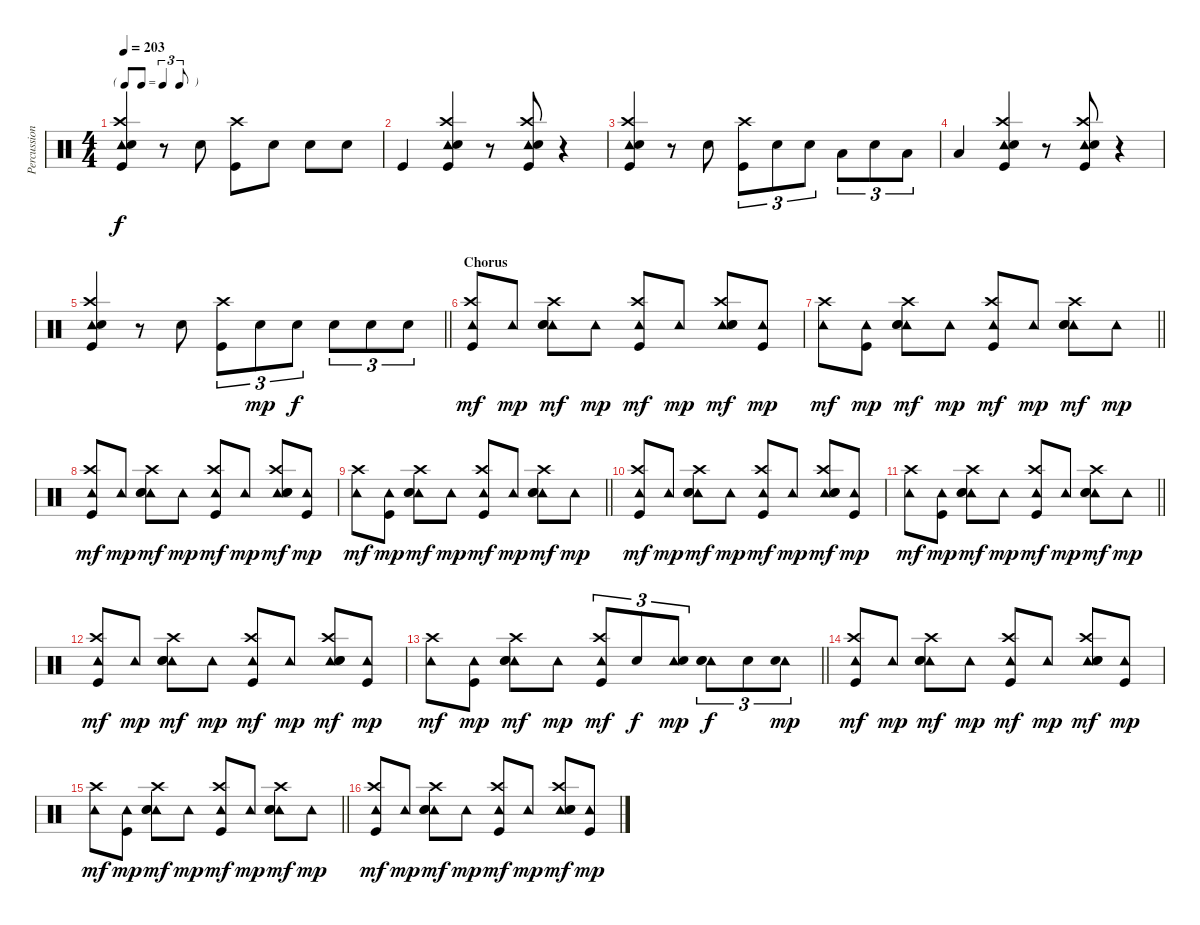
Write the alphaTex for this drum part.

\track ("Percussion" "Percussion") {instrument percussion}
\staff {score}
\articulation defaults
\ts (4 4)
\tf triplet8th
\tempo 203
\clef neutral
\ks c
("Tambourine (hit)" "Crash high (hit)" "Snare (hit) 2" "Kick (hit)").4{dy f} r.8 "Snare (hit) 2".8 ("Crash high (hit)" "Kick (hit)").8 "Snare (hit) 2".8 "Snare (hit) 2".8 "Snare (hit) 2".8 |
"Kick (hit)".4 ("Tambourine (hit)" "Crash high (hit)" "Snare (hit) 2" "Kick (hit)").4 r.8 ("Tambourine (hit)" "Crash high (hit)" "Snare (hit) 2" "Kick (hit)").8 r.4 |
("Tambourine (hit)" "Crash high (hit)" "Snare (hit) 2" "Kick (hit)").4 r.8 "Snare (hit) 2".8 ("Crash high (hit)" "Kick (hit)").8{tu (3 2)} "Snare (hit) 2".8{tu (3 2)} "Snare (hit) 2".8{tu (3 2)} "Low Tom (hit)".8{tu (3 2)} "Snare (hit) 2".8{tu (3 2)} "Low Tom (hit)".8{tu (3 2)} |
"Low Floor Tom (hit)".4 ("Tambourine (hit)" "Crash high (hit)" "Snare (hit) 2" "Kick (hit)").4 r.8 ("Tambourine (hit)" "Crash high (hit)" "Snare (hit) 2" "Kick (hit)").8 r.4 |
\barLineRight lightlight
("Tambourine (hit)" "Crash high (hit)" "Snare (hit) 2" "Kick (hit)").4 r.8 "Snare (hit) 2".8 ("Crash high (hit)" "Kick (hit)").8{tu (3 2)} "Snare (hit) 2".8{tu (3 2) dy mp} "Snare (hit) 2".8{tu (3 2) dy f} "Snare (hit) 2".8{tu (3 2)} "Snare (hit) 2".8{tu (3 2)} "Snare (hit) 2".8{tu (3 2)} |
\section ("" "Chorus")
("Tambourine (hit)" "Crash high (hit)" "Kick (hit)").8{dy mf} "Tambourine (hit)".8{dy mp} ("Tambourine (hit)" "Crash high (hit)" "Hand Clap (hit)" "Snare (hit) 2").8{dy mf} "Tambourine (hit)".8{dy mp} ("Tambourine (hit)" "Crash high (hit)" "Kick (hit)").8{dy mf} "Tambourine (hit)".8{dy mp} ("Tambourine (hit)" "Crash high (hit)" "Hand Clap (hit)" "Snare (hit) 2").8{dy mf} ("Tambourine (hit)" "Kick (hit)").8{dy mp} |
\barLineRight lightlight
("Tambourine (hit)" "Crash high (hit)").8{dy mf} ("Tambourine (hit)" "Kick (hit)").8{dy mp} ("Tambourine (hit)" "Crash high (hit)" "Hand Clap (hit)" "Snare (hit) 2").8{dy mf} "Tambourine (hit)".8{dy mp} ("Tambourine (hit)" "Crash high (hit)" "Kick (hit)").8{dy mf} "Tambourine (hit)".8{dy mp} ("Tambourine (hit)" "Crash high (hit)" "Hand Clap (hit)" "Snare (hit) 2").8{dy mf} "Tambourine (hit)".8{dy mp} |
("Tambourine (hit)" "Crash high (hit)" "Kick (hit)").8{dy mf} "Tambourine (hit)".8{dy mp} ("Tambourine (hit)" "Crash high (hit)" "Hand Clap (hit)" "Snare (hit) 2").8{dy mf} "Tambourine (hit)".8{dy mp} ("Tambourine (hit)" "Crash high (hit)" "Kick (hit)").8{dy mf} "Tambourine (hit)".8{dy mp} ("Tambourine (hit)" "Crash high (hit)" "Hand Clap (hit)" "Snare (hit) 2").8{dy mf} ("Tambourine (hit)" "Kick (hit)").8{dy mp} |
\barLineRight lightlight
("Tambourine (hit)" "Crash high (hit)").8{dy mf} ("Tambourine (hit)" "Kick (hit)").8{dy mp} ("Tambourine (hit)" "Crash high (hit)" "Hand Clap (hit)" "Snare (hit) 2").8{dy mf} "Tambourine (hit)".8{dy mp} ("Tambourine (hit)" "Crash high (hit)" "Kick (hit)").8{dy mf} "Tambourine (hit)".8{dy mp} ("Tambourine (hit)" "Crash high (hit)" "Hand Clap (hit)" "Snare (hit) 2").8{dy mf} "Tambourine (hit)".8{dy mp} |
("Tambourine (hit)" "Crash high (hit)" "Kick (hit)").8{dy mf} "Tambourine (hit)".8{dy mp} ("Tambourine (hit)" "Crash high (hit)" "Hand Clap (hit)" "Snare (hit) 2").8{dy mf} "Tambourine (hit)".8{dy mp} ("Tambourine (hit)" "Crash high (hit)" "Kick (hit)").8{dy mf} "Tambourine (hit)".8{dy mp} ("Tambourine (hit)" "Crash high (hit)" "Hand Clap (hit)" "Snare (hit) 2").8{dy mf} ("Tambourine (hit)" "Kick (hit)").8{dy mp} |
\barLineRight lightlight
("Tambourine (hit)" "Crash high (hit)").8{dy mf} ("Tambourine (hit)" "Kick (hit)").8{dy mp} ("Tambourine (hit)" "Crash high (hit)" "Hand Clap (hit)" "Snare (hit) 2").8{dy mf} "Tambourine (hit)".8{dy mp} ("Tambourine (hit)" "Crash high (hit)" "Kick (hit)").8{dy mf} "Tambourine (hit)".8{dy mp} ("Tambourine (hit)" "Crash high (hit)" "Hand Clap (hit)" "Snare (hit) 2").8{dy mf} "Tambourine (hit)".8{dy mp} |
("Tambourine (hit)" "Crash high (hit)" "Kick (hit)").8{dy mf} "Tambourine (hit)".8{dy mp} ("Tambourine (hit)" "Crash high (hit)" "Hand Clap (hit)" "Snare (hit) 2").8{dy mf} "Tambourine (hit)".8{dy mp} ("Tambourine (hit)" "Crash high (hit)" "Kick (hit)").8{dy mf} "Tambourine (hit)".8{dy mp} ("Tambourine (hit)" "Crash high (hit)" "Hand Clap (hit)" "Snare (hit) 2").8{dy mf} ("Tambourine (hit)" "Kick (hit)").8{dy mp} |
\barLineRight lightlight
("Tambourine (hit)" "Crash high (hit)").8{dy mf} ("Tambourine (hit)" "Kick (hit)").8{dy mp} ("Tambourine (hit)" "Crash high (hit)" "Hand Clap (hit)" "Snare (hit) 2").8{dy mf} "Tambourine (hit)".8{dy mp} ("Tambourine (hit)" "Crash high (hit)" "Kick (hit)").8{tu (3 2) dy mf} "Snare (hit) 2".8{tu (3 2) dy f} ("Tambourine (hit)" "Snare (hit) 2").8{tu (3 2) dy mp} ("Tambourine (hit)" "Hand Clap (hit)" "Snare (hit) 2").8{tu (3 2) dy f} "Snare (hit) 2".8{tu (3 2)} ("Tambourine (hit)" "Snare (hit) 2").8{tu (3 2) dy mp} |
("Tambourine (hit)" "Crash high (hit)" "Kick (hit)").8{dy mf} "Tambourine (hit)".8{dy mp} ("Tambourine (hit)" "Crash high (hit)" "Hand Clap (hit)" "Snare (hit) 2").8{dy mf} "Tambourine (hit)".8{dy mp} ("Tambourine (hit)" "Crash high (hit)" "Kick (hit)").8{dy mf} "Tambourine (hit)".8{dy mp} ("Tambourine (hit)" "Crash high (hit)" "Hand Clap (hit)" "Snare (hit) 2").8{dy mf} ("Tambourine (hit)" "Kick (hit)").8{dy mp} |
\barLineRight lightlight
("Tambourine (hit)" "Crash high (hit)").8{dy mf} ("Tambourine (hit)" "Kick (hit)").8{dy mp} ("Tambourine (hit)" "Crash high (hit)" "Hand Clap (hit)" "Snare (hit) 2").8{dy mf} "Tambourine (hit)".8{dy mp} ("Tambourine (hit)" "Crash high (hit)" "Kick (hit)").8{dy mf} "Tambourine (hit)".8{dy mp} ("Tambourine (hit)" "Crash high (hit)" "Hand Clap (hit)" "Snare (hit) 2").8{dy mf} "Tambourine (hit)".8{dy mp} |
("Tambourine (hit)" "Crash high (hit)" "Kick (hit)").8{dy mf} "Tambourine (hit)".8{dy mp} ("Tambourine (hit)" "Crash high (hit)" "Hand Clap (hit)" "Snare (hit) 2").8{dy mf} "Tambourine (hit)".8{dy mp} ("Tambourine (hit)" "Crash high (hit)" "Kick (hit)").8{dy mf} "Tambourine (hit)".8{dy mp} ("Tambourine (hit)" "Crash high (hit)" "Hand Clap (hit)" "Snare (hit) 2").8{dy mf} ("Tambourine (hit)" "Kick (hit)").8{dy mp}
